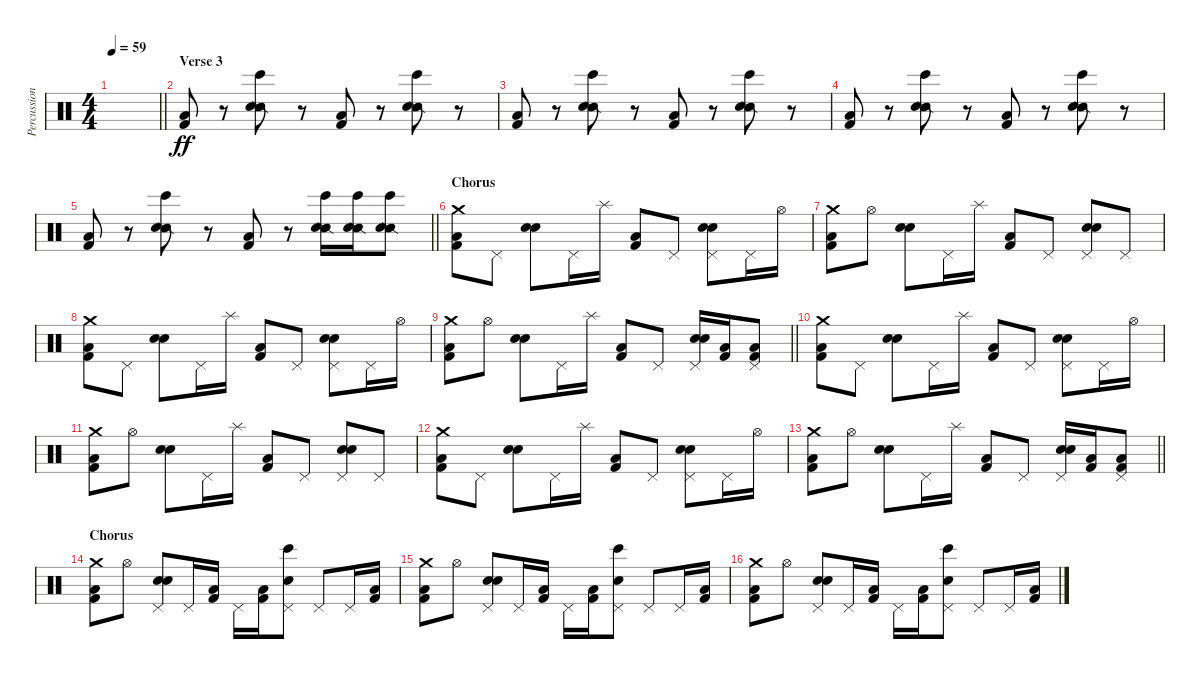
\track ("Percussion" "Percussion") {instrument percussion}
\staff {score}
\articulation defaults
\ts (4 4)
\tempo 59
\clef neutral
\barLineRight lightlight
\ks c
|
\section ("" "Verse 3")
("Low Floor Tom (hit)" "Kick (hit) 2").8{dy ff} r.8 ("Bongo High (hit)" "Snare (side stick) 2" "Hand Clap (hit)").8 r.8 ("Low Floor Tom (hit)" "Kick (hit) 2").8 r.8 ("Bongo High (hit)" "Snare (side stick) 2" "Hand Clap (hit)").8 r.8 |
("Low Floor Tom (hit)" "Kick (hit) 2").8 r.8 ("Bongo High (hit)" "Snare (side stick) 2" "Hand Clap (hit)").8 r.8 ("Low Floor Tom (hit)" "Kick (hit) 2").8 r.8 ("Bongo High (hit)" "Snare (side stick) 2" "Hand Clap (hit)").8 r.8 |
("Low Floor Tom (hit)" "Kick (hit) 2").8 r.8 ("Bongo High (hit)" "Snare (side stick) 2" "Hand Clap (hit)").8 r.8 ("Low Floor Tom (hit)" "Kick (hit) 2").8 r.8 ("Bongo High (hit)" "Snare (side stick) 2" "Hand Clap (hit)").8 r.8 |
\barLineRight lightlight
("Low Floor Tom (hit)" "Kick (hit) 2").8 r.8 ("Bongo High (hit)" "Snare (side stick) 2" "Hand Clap (hit)").8 r.8 ("Low Floor Tom (hit)" "Kick (hit) 2").8 r.8 ("Bongo High (hit)" "Snare (side stick) 2" "Hand Clap (hit)").16 ("Bongo High (hit)" "Snare (side stick) 2" "Hand Clap (hit)").16 ("Bongo High (hit)" "Snare (side stick) 2" "Hand Clap (hit)").8 |
\section ("" "Chorus")
("Crash medium (hit)" "Low Floor Tom (hit)" "Kick (hit) 2").8 "Pedal Hi-Hat (hit)".8 ("Snare (hit) 2" "Electric Snare (hit)").8 "Pedal Hi-Hat (hit)".16 "Splash (hit)".16 ("Low Floor Tom (hit)" "Kick (hit) 2").8 "Pedal Hi-Hat (hit)".8 ("Pedal Hi-Hat (hit)" "Snare (hit) 2" "Electric Snare (hit)").8 "Pedal Hi-Hat (hit)".16 "Hi-Hat (open)".16 |
("Crash medium (hit)" "Low Floor Tom (hit)" "Kick (hit) 2").8 "Hi-Hat (open)".8 ("Snare (hit) 2" "Electric Snare (hit)").8 "Pedal Hi-Hat (hit)".16 "Splash (hit)".16 ("Low Floor Tom (hit)" "Kick (hit) 2").8 "Pedal Hi-Hat (hit)".8 ("Pedal Hi-Hat (hit)" "Snare (hit) 2" "Electric Snare (hit)").8 "Pedal Hi-Hat (hit)".8 |
("Crash medium (hit)" "Low Floor Tom (hit)" "Kick (hit) 2").8 "Pedal Hi-Hat (hit)".8 ("Snare (hit) 2" "Electric Snare (hit)").8 "Pedal Hi-Hat (hit)".16 "Splash (hit)".16 ("Low Floor Tom (hit)" "Kick (hit) 2").8 "Pedal Hi-Hat (hit)".8 ("Pedal Hi-Hat (hit)" "Snare (hit) 2" "Electric Snare (hit)").8 "Pedal Hi-Hat (hit)".16 "Hi-Hat (open)".16 |
\barLineRight lightlight
("Crash medium (hit)" "Low Floor Tom (hit)" "Kick (hit) 2").8 "Hi-Hat (open)".8 ("Snare (hit) 2" "Electric Snare (hit)").8 "Pedal Hi-Hat (hit)".16 "Splash (hit)".16 ("Low Floor Tom (hit)" "Kick (hit) 2").8 "Pedal Hi-Hat (hit)".8 ("Pedal Hi-Hat (hit)" "Snare (hit) 2" "Electric Snare (hit)").16 ("Low Floor Tom (hit)" "Kick (hit) 2").16 ("Pedal Hi-Hat (hit)" "Low Floor Tom (hit)" "Kick (hit) 2").8 |
("Crash medium (hit)" "Low Floor Tom (hit)" "Kick (hit) 2").8 "Pedal Hi-Hat (hit)".8 ("Snare (hit) 2" "Electric Snare (hit)").8 "Pedal Hi-Hat (hit)".16 "Splash (hit)".16 ("Low Floor Tom (hit)" "Kick (hit) 2").8 "Pedal Hi-Hat (hit)".8 ("Pedal Hi-Hat (hit)" "Snare (hit) 2" "Electric Snare (hit)").8 "Pedal Hi-Hat (hit)".16 "Hi-Hat (open)".16 |
("Crash medium (hit)" "Low Floor Tom (hit)" "Kick (hit) 2").8 "Hi-Hat (open)".8 ("Snare (hit) 2" "Electric Snare (hit)").8 "Pedal Hi-Hat (hit)".16 "Splash (hit)".16 ("Low Floor Tom (hit)" "Kick (hit) 2").8 "Pedal Hi-Hat (hit)".8 ("Pedal Hi-Hat (hit)" "Snare (hit) 2" "Electric Snare (hit)").8 "Pedal Hi-Hat (hit)".8 |
("Crash medium (hit)" "Low Floor Tom (hit)" "Kick (hit) 2").8 "Pedal Hi-Hat (hit)".8 ("Snare (hit) 2" "Electric Snare (hit)").8 "Pedal Hi-Hat (hit)".16 "Splash (hit)".16 ("Low Floor Tom (hit)" "Kick (hit) 2").8 "Pedal Hi-Hat (hit)".8 ("Pedal Hi-Hat (hit)" "Snare (hit) 2" "Electric Snare (hit)").8 "Pedal Hi-Hat (hit)".16 "Hi-Hat (open)".16 |
\barLineRight lightlight
("Crash medium (hit)" "Low Floor Tom (hit)" "Kick (hit) 2").8 "Hi-Hat (open)".8 ("Snare (hit) 2" "Electric Snare (hit)").8 "Pedal Hi-Hat (hit)".16 "Splash (hit)".16 ("Low Floor Tom (hit)" "Kick (hit) 2").8 "Pedal Hi-Hat (hit)".8 ("Pedal Hi-Hat (hit)" "Snare (hit) 2" "Electric Snare (hit)").16 ("Low Floor Tom (hit)" "Kick (hit) 2").16 ("Pedal Hi-Hat (hit)" "Low Floor Tom (hit)" "Kick (hit) 2").8 |
\section ("" "Chorus")
("Crash medium (hit)" "Low Floor Tom (hit)" "Kick (hit) 2").8 "Hi-Hat (open)".8 ("Pedal Hi-Hat (hit)" "Snare (hit) 2" "Electric Snare (hit)").8 "Pedal Hi-Hat (hit)".16 ("Low Floor Tom (hit)" "Kick (hit) 2").16 "Pedal Hi-Hat (hit)".16 ("Low Floor Tom (hit)" "Kick (hit) 2").16 ("Pedal Hi-Hat (hit)" "Snare (hit) 2" "Bongo High (hit)").8 "Pedal Hi-Hat (hit)".8 "Pedal Hi-Hat (hit)".16 ("Low Floor Tom (hit)" "Kick (hit) 2").16 |
("Crash medium (hit)" "Low Floor Tom (hit)" "Kick (hit) 2").8 "Hi-Hat (open)".8 ("Pedal Hi-Hat (hit)" "Snare (hit) 2" "Electric Snare (hit)").8 "Pedal Hi-Hat (hit)".16 ("Low Floor Tom (hit)" "Kick (hit) 2").16 "Pedal Hi-Hat (hit)".16 ("Low Floor Tom (hit)" "Kick (hit) 2").16 ("Pedal Hi-Hat (hit)" "Snare (hit) 2" "Bongo High (hit)").8 "Pedal Hi-Hat (hit)".8 "Pedal Hi-Hat (hit)".16 ("Low Floor Tom (hit)" "Kick (hit) 2").16 |
("Crash medium (hit)" "Low Floor Tom (hit)" "Kick (hit) 2").8 "Hi-Hat (open)".8 ("Pedal Hi-Hat (hit)" "Snare (hit) 2" "Electric Snare (hit)").8 "Pedal Hi-Hat (hit)".16 ("Low Floor Tom (hit)" "Kick (hit) 2").16 "Pedal Hi-Hat (hit)".16 ("Low Floor Tom (hit)" "Kick (hit) 2").16 ("Pedal Hi-Hat (hit)" "Snare (hit) 2" "Bongo High (hit)").8 "Pedal Hi-Hat (hit)".8 "Pedal Hi-Hat (hit)".16 ("Low Floor Tom (hit)" "Kick (hit) 2").16
